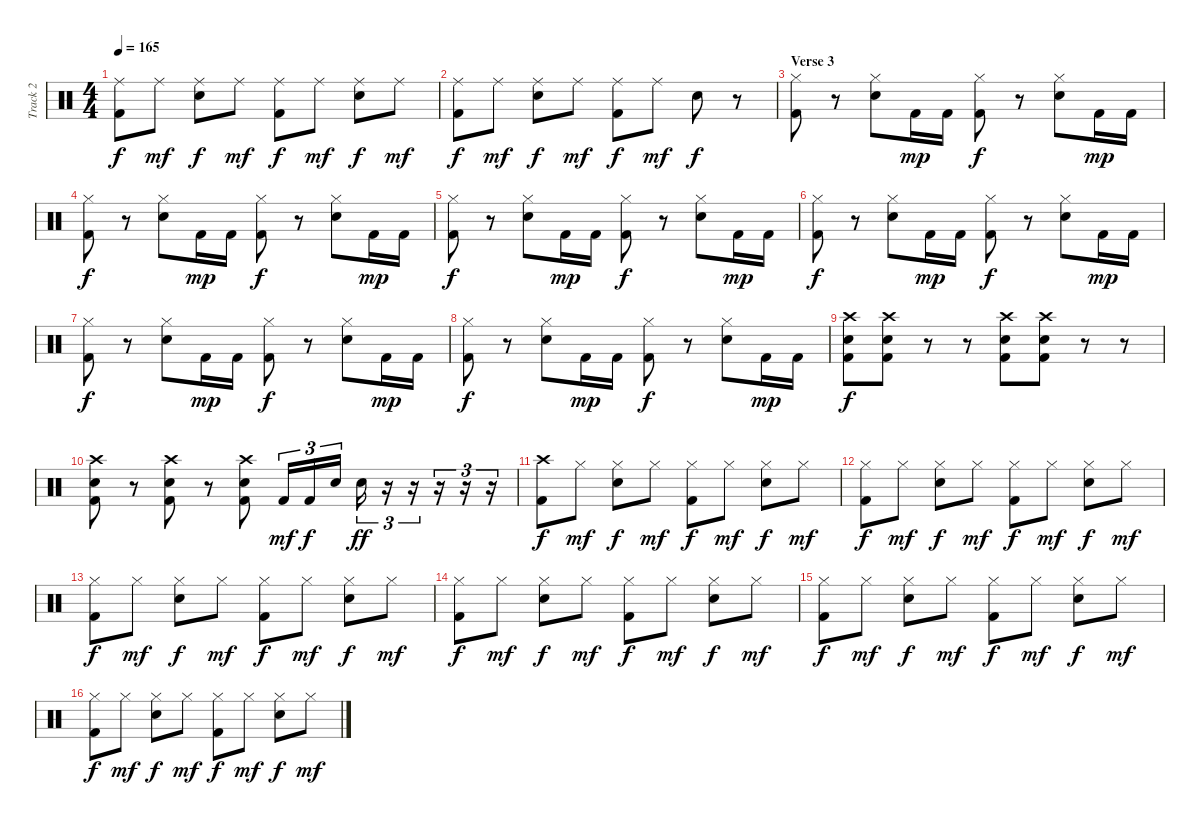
\track ("Track 2" "Track 2") {instrument percussion}
\staff {score}
\articulation defaults
\ts (4 4)
\tempo 165
\clef neutral
\ks c
("Ride (middle)" "Kick (hit) 2").8{dy f} "Ride (middle)".8{dy mf} ("Ride (middle)" "Electric Snare (hit)").8{dy f} "Ride (middle)".8{dy mf} ("Ride (middle)" "Kick (hit) 2").8{dy f} "Ride (middle)".8{dy mf} ("Ride (middle)" "Electric Snare (hit)").8{dy f} "Ride (middle)".8{dy mf} |
("Ride (middle)" "Kick (hit) 2").8{dy f} "Ride (middle)".8{dy mf} ("Ride (middle)" "Electric Snare (hit)").8{dy f} "Ride (middle)".8{dy mf} ("Ride (middle)" "Kick (hit) 2").8{dy f} "Ride (middle)".8{dy mf} "Electric Snare (hit)".8{dy f} r.8 |
\section ("" "Verse 3")
("Hi-Hat (closed)" "Kick (hit) 2").8 r.8 ("Hi-Hat (closed)" "Electric Snare (hit)").8 "Kick (hit) 2".16{dy mp} "Kick (hit) 2".16 ("Hi-Hat (closed)" "Kick (hit) 2").8{dy f} r.8 ("Hi-Hat (closed)" "Electric Snare (hit)").8 "Kick (hit) 2".16{dy mp} "Kick (hit) 2".16 |
("Hi-Hat (closed)" "Kick (hit) 2").8{dy f} r.8 ("Hi-Hat (closed)" "Electric Snare (hit)").8 "Kick (hit) 2".16{dy mp} "Kick (hit) 2".16 ("Hi-Hat (closed)" "Kick (hit) 2").8{dy f} r.8 ("Hi-Hat (closed)" "Electric Snare (hit)").8 "Kick (hit) 2".16{dy mp} "Kick (hit) 2".16 |
("Hi-Hat (closed)" "Kick (hit) 2").8{dy f} r.8 ("Hi-Hat (closed)" "Electric Snare (hit)").8 "Kick (hit) 2".16{dy mp} "Kick (hit) 2".16 ("Hi-Hat (closed)" "Kick (hit) 2").8{dy f} r.8 ("Hi-Hat (closed)" "Electric Snare (hit)").8 "Kick (hit) 2".16{dy mp} "Kick (hit) 2".16 |
("Hi-Hat (closed)" "Kick (hit) 2").8{dy f} r.8 ("Hi-Hat (closed)" "Electric Snare (hit)").8 "Kick (hit) 2".16{dy mp} "Kick (hit) 2".16 ("Hi-Hat (closed)" "Kick (hit) 2").8{dy f} r.8 ("Hi-Hat (closed)" "Electric Snare (hit)").8 "Kick (hit) 2".16{dy mp} "Kick (hit) 2".16 |
("Hi-Hat (closed)" "Kick (hit) 2").8{dy f} r.8 ("Hi-Hat (closed)" "Electric Snare (hit)").8 "Kick (hit) 2".16{dy mp} "Kick (hit) 2".16 ("Hi-Hat (closed)" "Kick (hit) 2").8{dy f} r.8 ("Hi-Hat (closed)" "Electric Snare (hit)").8 "Kick (hit) 2".16{dy mp} "Kick (hit) 2".16 |
("Hi-Hat (closed)" "Kick (hit) 2").8{dy f} r.8 ("Hi-Hat (closed)" "Electric Snare (hit)").8 "Kick (hit) 2".16{dy mp} "Kick (hit) 2".16 ("Hi-Hat (closed)" "Kick (hit) 2").8{dy f} r.8 ("Hi-Hat (closed)" "Electric Snare (hit)").8 "Kick (hit) 2".16{dy mp} "Kick (hit) 2".16 |
("Crash high (hit)" "Electric Snare (hit)" "Kick (hit) 2").8{dy f} ("Crash high (hit)" "Electric Snare (hit)" "Kick (hit) 2").8 r.8 r.8 ("Crash high (hit)" "Electric Snare (hit)" "Kick (hit) 2").8 ("Crash high (hit)" "Electric Snare (hit)" "Kick (hit) 2").8 r.8 r.8 |
("Crash high (hit)" "Electric Snare (hit)" "Kick (hit) 2").8 r.8 ("Crash high (hit)" "Electric Snare (hit)" "Kick (hit) 2").8 r.8 ("Crash high (hit)" "Electric Snare (hit)" "Kick (hit) 2").8 "Kick (hit) 2".16{tu (3 2) dy mf} "Kick (hit) 2".16{tu (3 2) dy f} "Electric Snare (hit)".16{tu (3 2)} "Electric Snare (hit)".16{tu (3 2) dy ff} r.16{tu (3 2)} r.16{tu (3 2)} r.16{tu (3 2)} r.16{tu (3 2)} r.16{tu (3 2)} |
("Crash high (hit)" "Kick (hit) 2").8{dy f} "Hi-Hat (closed)".8{dy mf} ("Hi-Hat (closed)" "Electric Snare (hit)").8{dy f} "Hi-Hat (closed)".8{dy mf} ("Hi-Hat (closed)" "Kick (hit) 2").8{dy f} "Hi-Hat (closed)".8{dy mf} ("Hi-Hat (closed)" "Electric Snare (hit)").8{dy f} "Hi-Hat (closed)".8{dy mf} |
("Hi-Hat (closed)" "Kick (hit) 2").8{dy f} "Hi-Hat (closed)".8{dy mf} ("Hi-Hat (closed)" "Electric Snare (hit)").8{dy f} "Hi-Hat (closed)".8{dy mf} ("Hi-Hat (closed)" "Kick (hit) 2").8{dy f} "Hi-Hat (closed)".8{dy mf} ("Hi-Hat (closed)" "Electric Snare (hit)").8{dy f} "Hi-Hat (closed)".8{dy mf} |
("Hi-Hat (closed)" "Kick (hit) 2").8{dy f} "Hi-Hat (closed)".8{dy mf} ("Hi-Hat (closed)" "Electric Snare (hit)").8{dy f} "Hi-Hat (closed)".8{dy mf} ("Hi-Hat (closed)" "Kick (hit) 2").8{dy f} "Hi-Hat (closed)".8{dy mf} ("Hi-Hat (closed)" "Electric Snare (hit)").8{dy f} "Hi-Hat (closed)".8{dy mf} |
("Hi-Hat (closed)" "Kick (hit) 2").8{dy f} "Hi-Hat (closed)".8{dy mf} ("Hi-Hat (closed)" "Electric Snare (hit)").8{dy f} "Hi-Hat (closed)".8{dy mf} ("Hi-Hat (closed)" "Kick (hit) 2").8{dy f} "Hi-Hat (closed)".8{dy mf} ("Hi-Hat (closed)" "Electric Snare (hit)").8{dy f} "Hi-Hat (closed)".8{dy mf} |
("Hi-Hat (closed)" "Kick (hit) 2").8{dy f} "Hi-Hat (closed)".8{dy mf} ("Hi-Hat (closed)" "Electric Snare (hit)").8{dy f} "Hi-Hat (closed)".8{dy mf} ("Hi-Hat (closed)" "Kick (hit) 2").8{dy f} "Hi-Hat (closed)".8{dy mf} ("Hi-Hat (closed)" "Electric Snare (hit)").8{dy f} "Hi-Hat (closed)".8{dy mf} |
("Hi-Hat (closed)" "Kick (hit) 2").8{dy f} "Hi-Hat (closed)".8{dy mf} ("Hi-Hat (closed)" "Electric Snare (hit)").8{dy f} "Hi-Hat (closed)".8{dy mf} ("Hi-Hat (closed)" "Kick (hit) 2").8{dy f} "Hi-Hat (closed)".8{dy mf} ("Hi-Hat (closed)" "Electric Snare (hit)").8{dy f} "Hi-Hat (closed)".8{dy mf}
